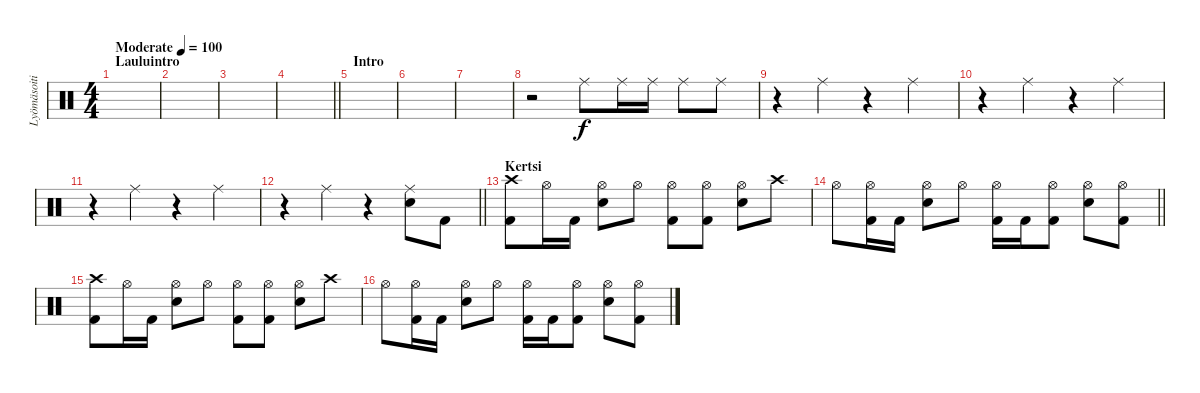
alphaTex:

\track ("Lyömäsoitin" "Lyömäsoiti") {instrument percussion}
\staff {score}
\articulation defaults
\ts (4 4)
\section ("" "Lauluintro")
\tempo (100 "Moderate")
\clef neutral
\ks c
|
|
|
\barLineRight lightlight
|
\section ("" "Intro")
|
|
|
r.2 "Ride (middle)".8 "Ride (middle)".16 "Ride (middle)".16 "Ride (middle)".8 "Ride (middle)".8 |
r.4 "Ride (middle)".4 r.4 "Ride (middle)".4 |
r.4 "Ride (middle)".4 r.4 "Ride (middle)".4 |
r.4 "Ride (middle)".4 r.4 "Ride (middle)".4 |
\barLineRight lightlight
r.4 "Ride (middle)".4 r.4 ("Ride (middle)" "Snare (hit) 2").8 "Kick (hit) 2".8 |
\section ("" "Kertsi")
("Crash high (hit)" "Kick (hit) 2").8 "Hi-Hat (open)".16 "Kick (hit) 2".16 ("Hi-Hat (open)" "Snare (hit) 2").8 "Hi-Hat (open)".8 ("Hi-Hat (open)" "Kick (hit) 2").8 ("Hi-Hat (open)" "Kick (hit) 2").8 ("Hi-Hat (open)" "Snare (hit) 2").8 "Crash high (hit)".8 |
\barLineRight lightlight "Hi-Hat (open)".8
("Hi-Hat (open)" "Kick (hit) 2").16 "Kick (hit) 2".16 ("Hi-Hat (open)" "Snare (hit) 2").8 "Hi-Hat (open)".8 ("Hi-Hat (open)" "Kick (hit) 2").16 "Kick (hit) 2".16 ("Hi-Hat (open)" "Kick (hit) 2").8 ("Hi-Hat (open)" "Snare (hit) 2").8 ("Hi-Hat (open)" "Kick (hit) 2").8 |
("Crash high (hit)" "Kick (hit) 2").8 "Hi-Hat (open)".16 "Kick (hit) 2".16 ("Hi-Hat (open)" "Snare (hit) 2").8 "Hi-Hat (open)".8 ("Hi-Hat (open)" "Kick (hit) 2").8 ("Hi-Hat (open)" "Kick (hit) 2").8 ("Hi-Hat (open)" "Snare (hit) 2").8 "Crash high (hit)".8 |
"Hi-Hat (open)".8 ("Hi-Hat (open)" "Kick (hit) 2").16 "Kick (hit) 2".16 ("Hi-Hat (open)" "Snare (hit) 2").8 "Hi-Hat (open)".8 ("Hi-Hat (open)" "Kick (hit) 2").16 "Kick (hit) 2".16 ("Hi-Hat (open)" "Kick (hit) 2").8 ("Hi-Hat (open)" "Snare (hit) 2").8 ("Hi-Hat (open)" "Kick (hit) 2").8
